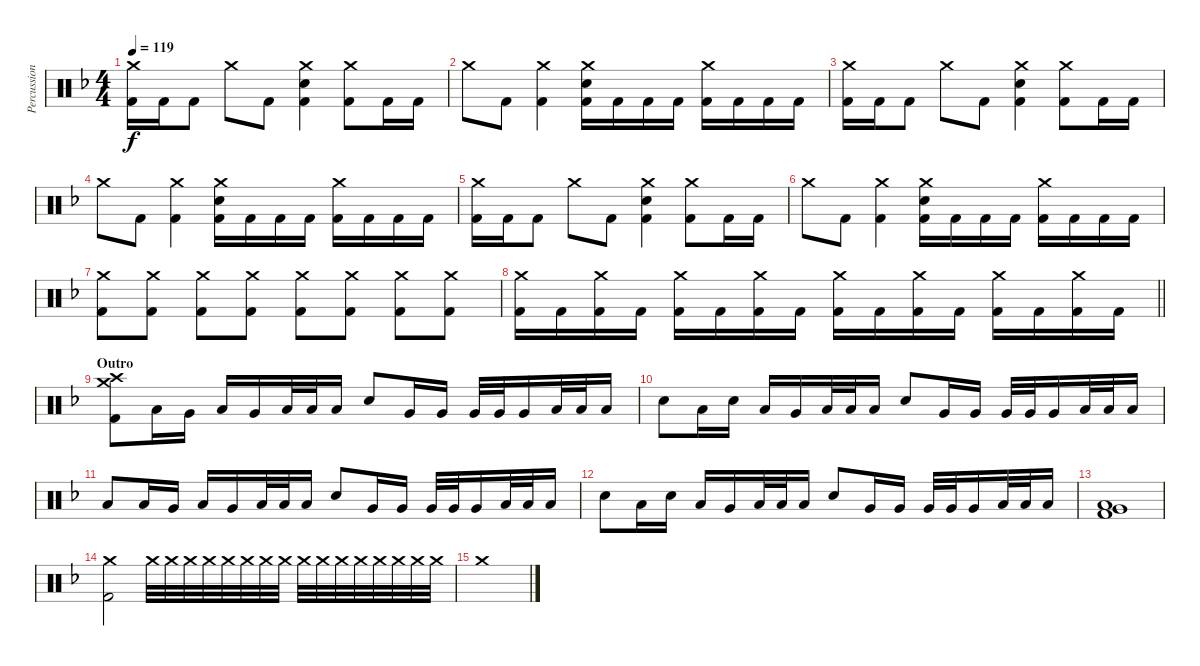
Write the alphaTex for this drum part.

\track ("Percussion" "Percussion") {instrument percussion}
\staff {score}
\articulation defaults
\ts (4 4)
\tempo 119
\clef neutral
\ks dminor
("Crash medium (hit)" "Kick (hit) 2").16{dy f} "Kick (hit) 2".16 "Kick (hit) 2".8 "Crash medium (hit)".8 "Kick (hit) 2".8 ("Crash medium (hit)" "Electric Snare (hit)" "Kick (hit) 2").4 ("Crash medium (hit)" "Kick (hit) 2").8 "Kick (hit) 2".16 "Kick (hit) 2".16 |
"Crash medium (hit)".8 "Kick (hit) 2".8 ("Crash medium (hit)" "Kick (hit) 2").4 ("Crash medium (hit)" "Electric Snare (hit)" "Kick (hit) 2").16 "Kick (hit) 2".16 "Kick (hit) 2".16 "Kick (hit) 2".16 ("Crash medium (hit)" "Kick (hit) 2").16 "Kick (hit) 2".16 "Kick (hit) 2".16 "Kick (hit) 2".16 |
("Crash medium (hit)" "Kick (hit) 2").16 "Kick (hit) 2".16 "Kick (hit) 2".8 "Crash medium (hit)".8 "Kick (hit) 2".8 ("Crash medium (hit)" "Electric Snare (hit)" "Kick (hit) 2").4 ("Crash medium (hit)" "Kick (hit) 2").8 "Kick (hit) 2".16 "Kick (hit) 2".16 |
"Crash medium (hit)".8 "Kick (hit) 2".8 ("Crash medium (hit)" "Kick (hit) 2").4 ("Crash medium (hit)" "Electric Snare (hit)" "Kick (hit) 2").16 "Kick (hit) 2".16 "Kick (hit) 2".16 "Kick (hit) 2".16 ("Crash medium (hit)" "Kick (hit) 2").16 "Kick (hit) 2".16 "Kick (hit) 2".16 "Kick (hit) 2".16 |
("Crash medium (hit)" "Kick (hit) 2").16 "Kick (hit) 2".16 "Kick (hit) 2".8 "Crash medium (hit)".8 "Kick (hit) 2".8 ("Crash medium (hit)" "Electric Snare (hit)" "Kick (hit) 2").4 ("Crash medium (hit)" "Kick (hit) 2").8 "Kick (hit) 2".16 "Kick (hit) 2".16 |
"Crash medium (hit)".8 "Kick (hit) 2".8 ("Crash medium (hit)" "Kick (hit) 2").4 ("Crash medium (hit)" "Electric Snare (hit)" "Kick (hit) 2").16 "Kick (hit) 2".16 "Kick (hit) 2".16 "Kick (hit) 2".16 ("Crash medium (hit)" "Kick (hit) 2").16 "Kick (hit) 2".16 "Kick (hit) 2".16 "Kick (hit) 2".16 |
("Crash medium (hit)" "Kick (hit) 2").8 ("Crash medium (hit)" "Kick (hit) 2").8 ("Crash medium (hit)" "Kick (hit) 2").8 ("Crash medium (hit)" "Kick (hit) 2").8 ("Crash medium (hit)" "Kick (hit) 2").8 ("Crash medium (hit)" "Kick (hit) 2").8 ("Crash medium (hit)" "Kick (hit) 2").8 ("Crash medium (hit)" "Kick (hit) 2").8 |
\barLineRight lightlight
("Crash medium (hit)" "Kick (hit) 2").16 "Kick (hit) 2".16 ("Crash medium (hit)" "Kick (hit) 2").16 "Kick (hit) 2".16 ("Crash medium (hit)" "Kick (hit) 2").16 "Kick (hit) 2".16 ("Crash medium (hit)" "Kick (hit) 2").16 "Kick (hit) 2".16 ("Crash medium (hit)" "Kick (hit) 2").16 "Kick (hit) 2".16 ("Crash medium (hit)" "Kick (hit) 2").16 "Kick (hit) 2".16 ("Crash medium (hit)" "Kick (hit) 2").16 "Kick (hit) 2".16 ("Crash medium (hit)" "Kick (hit) 2").16 "Kick (hit) 2".16 |
\section ("" "Outro")
("Crash medium (hit)" "Crash high (hit)" "Kick (hit) 2").8 "Low Tom (hit)".16 "Very Low Tom (hit)".16 "Low Floor Tom (hit)".16 "Very Low Tom (hit)".16 "Low Floor Tom (hit)".32 "Low Floor Tom (hit)".32 "Low Floor Tom (hit)".16 "Electric Snare (hit)".8 "Very Low Tom (hit)".16 "Very Low Tom (hit)".16 "Very Low Tom (hit)".32 "Very Low Tom (hit)".32 "Very Low Tom (hit)".16 "Low Floor Tom (hit)".32 "Low Floor Tom (hit)".32 "Low Floor Tom (hit)".16 |
"Electric Snare (hit)".8 "Low Tom (hit)".16 "Electric Snare (hit)".16 "Low Floor Tom (hit)".16 "Very Low Tom (hit)".16 "Low Floor Tom (hit)".32 "Low Floor Tom (hit)".32 "Low Floor Tom (hit)".16 "Electric Snare (hit)".8 "Very Low Tom (hit)".16 "Very Low Tom (hit)".16 "Very Low Tom (hit)".32 "Very Low Tom (hit)".32 "Very Low Tom (hit)".16 "Low Floor Tom (hit)".32 "Low Floor Tom (hit)".32 "Low Floor Tom (hit)".16 |
"Low Floor Tom (hit)".8 "Low Tom (hit)".16 "Very Low Tom (hit)".16 "Low Floor Tom (hit)".16 "Very Low Tom (hit)".16 "Low Floor Tom (hit)".32 "Low Floor Tom (hit)".32 "Low Floor Tom (hit)".16 "Electric Snare (hit)".8 "Very Low Tom (hit)".16 "Very Low Tom (hit)".16 "Very Low Tom (hit)".32 "Very Low Tom (hit)".32 "Very Low Tom (hit)".16 "Low Floor Tom (hit)".32 "Low Floor Tom (hit)".32 "Low Floor Tom (hit)".16 |
"Electric Snare (hit)".8 "Low Tom (hit)".16 "Electric Snare (hit)".16 "Low Floor Tom (hit)".16 "Very Low Tom (hit)".16 "Low Floor Tom (hit)".32 "Low Floor Tom (hit)".32 "Low Floor Tom (hit)".16 "Electric Snare (hit)".8 "Very Low Tom (hit)".16 "Very Low Tom (hit)".16 "Very Low Tom (hit)".32 "Very Low Tom (hit)".32 "Very Low Tom (hit)".16 "Low Floor Tom (hit)".32 "Low Floor Tom (hit)".32 "Low Floor Tom (hit)".16 |
("Very Low Tom (hit)" "Low Floor Tom (hit)" "Kick (hit) 2").1 |
("Crash medium (hit)" "Kick (hit) 2").2 "Crash medium (hit)".32{volume 5} "Crash medium (hit)".32{volume 13} "Crash medium (hit)".32 "Crash medium (hit)".32 "Crash medium (hit)".32 "Crash medium (hit)".32 "Crash medium (hit)".32 "Crash medium (hit)".32 "Crash medium (hit)".32 "Crash medium (hit)".32 "Crash medium (hit)".32 "Crash medium (hit)".32 "Crash medium (hit)".32 "Crash medium (hit)".32 "Crash medium (hit)".32 "Crash medium (hit)".32 |
"Crash medium (hit)".1
